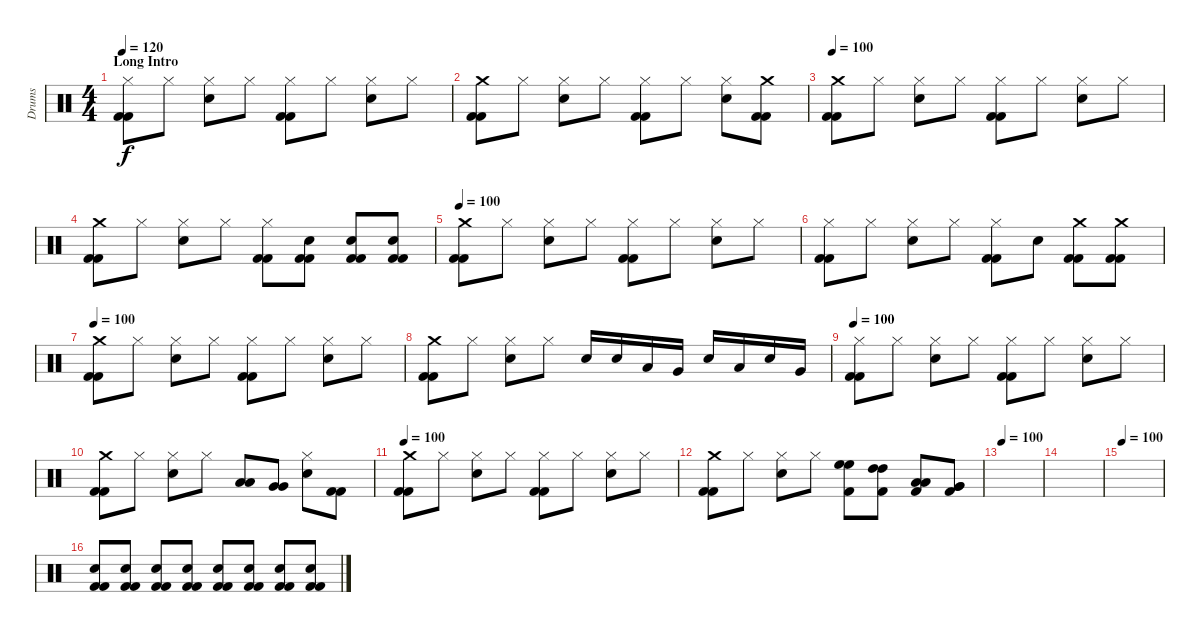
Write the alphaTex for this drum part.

\track ("Drums" "Drums") {instrument percussion}
\staff {score}
\articulation defaults
\ts (4 4)
\section ("" "Long Intro")
\tempo 120
\tempo 100
\tempo 120
\clef neutral
\ks c
("Hi-Hat (closed)" "Kick (hit) 2" "Kick (hit) 2").8{dy f} "Hi-Hat (closed)".8 ("Electric Snare (hit)" "Hi-Hat (closed)").8 "Hi-Hat (closed)".8 ("Hi-Hat (closed)" "Kick (hit) 2" "Kick (hit) 2").8 "Hi-Hat (closed)".8 ("Hi-Hat (closed)" "Electric Snare (hit)").8 "Hi-Hat (closed)".8 |
("Crash medium (hit)" "Kick (hit) 2" "Kick (hit) 2").8 "Hi-Hat (closed)".8 ("Electric Snare (hit)" "Hi-Hat (closed)").8 "Hi-Hat (closed)".8 ("Hi-Hat (closed)" "Kick (hit) 2" "Kick (hit) 2").8 "Hi-Hat (closed)".8 ("Hi-Hat (closed)" "Electric Snare (hit)").8 ("Kick (hit) 2" "Kick (hit) 2" "Crash medium (hit)").8 |
\tempo 100
("Crash medium (hit)" "Kick (hit) 2" "Kick (hit) 2").8 "Hi-Hat (closed)".8 ("Electric Snare (hit)" "Hi-Hat (closed)").8 "Hi-Hat (closed)".8 ("Hi-Hat (closed)" "Kick (hit) 2" "Kick (hit) 2").8 "Hi-Hat (closed)".8 ("Hi-Hat (closed)" "Electric Snare (hit)").8 "Hi-Hat (closed)".8 |
("Crash medium (hit)" "Kick (hit) 2" "Kick (hit) 2").8 "Hi-Hat (closed)".8 ("Electric Snare (hit)" "Hi-Hat (closed)").8 "Hi-Hat (closed)".8 ("Hi-Hat (closed)" "Kick (hit) 2" "Kick (hit) 2").8 ("Kick (hit) 2" "Kick (hit) 2" "Electric Snare (hit)").8 ("Electric Snare (hit)" "Kick (hit) 2" "Kick (hit) 2").8 ("Kick (hit) 2" "Kick (hit) 2" "Electric Snare (hit)").8 |
\tempo 100
("Crash medium (hit)" "Kick (hit) 2" "Kick (hit) 2").8 "Hi-Hat (closed)".8 ("Electric Snare (hit)" "Hi-Hat (closed)").8 "Hi-Hat (closed)".8 ("Hi-Hat (closed)" "Kick (hit) 2" "Kick (hit) 2").8 "Hi-Hat (closed)".8 ("Hi-Hat (closed)" "Electric Snare (hit)").8 "Hi-Hat (closed)".8 |
("Hi-Hat (closed)" "Kick (hit) 2" "Kick (hit) 2").8 "Hi-Hat (closed)".8 ("Electric Snare (hit)" "Hi-Hat (closed)").8 "Hi-Hat (closed)".8 ("Hi-Hat (closed)" "Kick (hit) 2" "Kick (hit) 2").8 "Electric Snare (hit)".8 ("Kick (hit) 2" "Kick (hit) 2" "Crash medium (hit)").8 ("Crash medium (hit)" "Kick (hit) 2" "Kick (hit) 2").8 |
\tempo 100
("Crash medium (hit)" "Kick (hit) 2" "Kick (hit) 2").8 "Hi-Hat (closed)".8 ("Electric Snare (hit)" "Hi-Hat (closed)").8 "Hi-Hat (closed)".8 ("Hi-Hat (closed)" "Kick (hit) 2" "Kick (hit) 2").8 "Hi-Hat (closed)".8 ("Hi-Hat (closed)" "Electric Snare (hit)").8 "Hi-Hat (closed)".8 |
("Crash medium (hit)" "Kick (hit) 2" "Kick (hit) 2").8 "Hi-Hat (closed)".8 ("Electric Snare (hit)" "Hi-Hat (closed)").8 "Hi-Hat (closed)".8 "Electric Snare (hit)".16 "Electric Snare (hit)".16 "Low Tom (hit)".16 "Very Low Tom (hit)".16 "Electric Snare (hit)".16 "Low Tom (hit)".16 "Electric Snare (hit)".16 "Very Low Tom (hit)".16 |
\tempo 100
("Hi-Hat (closed)" "Kick (hit) 2" "Kick (hit) 2").8 "Hi-Hat (closed)".8 ("Electric Snare (hit)" "Hi-Hat (closed)").8 "Hi-Hat (closed)".8 ("Hi-Hat (closed)" "Kick (hit) 2" "Kick (hit) 2").8 "Hi-Hat (closed)".8 ("Hi-Hat (closed)" "Electric Snare (hit)").8 "Hi-Hat (closed)".8 |
("Crash medium (hit)" "Kick (hit) 2" "Kick (hit) 2").8 "Hi-Hat (closed)".8 ("Electric Snare (hit)" "Hi-Hat (closed)").8 "Hi-Hat (closed)".8 ("Low Tom (hit)" "Low Tom (hit)").8 ("Very Low Tom (hit)" "Very Low Tom (hit)").8 ("Hi-Hat (closed)" "Electric Snare (hit)").8 ("Kick (hit) 2" "Kick (hit) 2").8 |
\tempo 100
("Kick (hit) 2" "Crash medium (hit)" "Kick (hit) 2").8 "Hi-Hat (closed)".8 ("Electric Snare (hit)" "Hi-Hat (closed)").8 "Hi-Hat (closed)".8 ("Hi-Hat (closed)" "Kick (hit) 2" "Kick (hit) 2").8 "Hi-Hat (closed)".8 ("Hi-Hat (closed)" "Electric Snare (hit)").8 "Hi-Hat (closed)".8 |
("Crash medium (hit)" "Kick (hit) 2" "Kick (hit) 2").8 "Hi-Hat (closed)".8 ("Electric Snare (hit)" "Hi-Hat (closed)").8 "Hi-Hat (closed)".8 ("High Floor Tom (hit)" "High Floor Tom (hit)" "Kick (hit) 2").8 ("High Tom (hit)" "High Tom (hit)" "Kick (hit) 2").8 ("Kick (hit) 2" "Low Tom (hit)" "Low Tom (hit)").8 ("Very Low Tom (hit)" "Very Low Tom (hit)" "Kick (hit) 2").8 |
\tempo 100
|
|
\tempo 100
|
("Electric Snare (hit)" "Kick (hit) 2" "Kick (hit) 2").8{volume 3} ("Kick (hit) 2" "Kick (hit) 2" "Electric Snare (hit)").8{volume 5} ("Electric Snare (hit)" "Kick (hit) 2" "Kick (hit) 2").8{volume 7} ("Kick (hit) 2" "Kick (hit) 2" "Electric Snare (hit)").8{volume 10} ("Electric Snare (hit)" "Kick (hit) 2" "Kick (hit) 2").8{volume 13} ("Kick (hit) 2" "Kick (hit) 2" "Electric Snare (hit)").8{volume 13} ("Electric Snare (hit)" "Kick (hit) 2" "Kick (hit) 2").8{volume 13} ("Kick (hit) 2" "Kick (hit) 2" "Electric Snare (hit)").8{volume 13}
